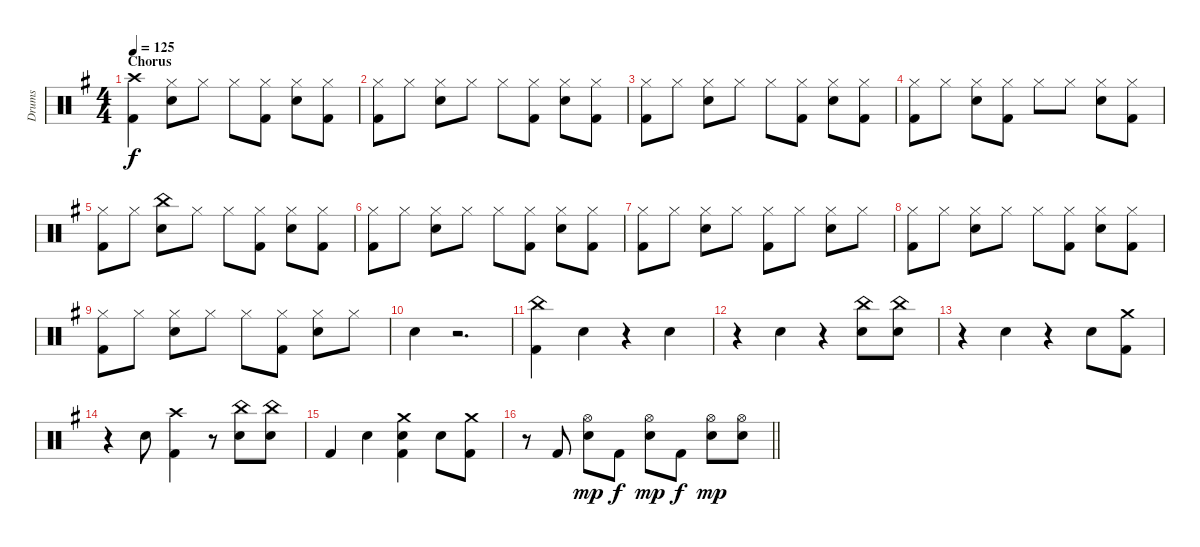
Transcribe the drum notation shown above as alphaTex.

\track ("Drums" "Drums") {instrument percussion}
\staff {score}
\articulation defaults
\ts (4 4)
\section ("" "Chorus")
\tempo 125
\clef neutral
\ks eminor
("Crash high (hit)" "Kick (hit) 2").4{dy f} ("Hi-Hat (closed)" "Electric Snare (hit)").8 "Hi-Hat (closed)".8 "Hi-Hat (closed)".8 ("Hi-Hat (closed)" "Kick (hit) 2").8 ("Hi-Hat (closed)" "Electric Snare (hit)").8 ("Hi-Hat (closed)" "Kick (hit) 2").8 |
("Hi-Hat (closed)" "Kick (hit) 2").8 "Hi-Hat (closed)".8 ("Hi-Hat (closed)" "Electric Snare (hit)").8 "Hi-Hat (closed)".8 "Hi-Hat (closed)".8 ("Hi-Hat (closed)" "Kick (hit) 2").8 ("Hi-Hat (closed)" "Electric Snare (hit)").8 ("Hi-Hat (closed)" "Kick (hit) 2").8 |
("Hi-Hat (closed)" "Kick (hit) 2").8 "Hi-Hat (closed)".8 ("Hi-Hat (closed)" "Electric Snare (hit)").8 "Hi-Hat (closed)".8 "Hi-Hat (closed)".8 ("Hi-Hat (closed)" "Kick (hit) 2").8 ("Hi-Hat (closed)" "Electric Snare (hit)").8 ("Hi-Hat (closed)" "Kick (hit) 2").8 |
("Hi-Hat (closed)" "Kick (hit) 2").8 "Hi-Hat (closed)".8 ("Hi-Hat (closed)" "Electric Snare (hit)").8 ("Hi-Hat (closed)" "Kick (hit) 2").8 "Hi-Hat (closed)".8 "Hi-Hat (closed)".8 ("Hi-Hat (closed)" "Electric Snare (hit)").8 ("Hi-Hat (closed)" "Kick (hit) 2").8 |
("Hi-Hat (closed)" "Kick (hit) 2").8 "Hi-Hat (closed)".8 ("China (hit)" "Electric Snare (hit)").8 "Hi-Hat (closed)".8 "Hi-Hat (closed)".8 ("Hi-Hat (closed)" "Kick (hit) 2").8 ("Hi-Hat (closed)" "Electric Snare (hit)").8 ("Hi-Hat (closed)" "Kick (hit) 2").8 |
("Hi-Hat (closed)" "Kick (hit) 2").8 "Hi-Hat (closed)".8 ("Hi-Hat (closed)" "Electric Snare (hit)").8 "Hi-Hat (closed)".8 "Hi-Hat (closed)".8 ("Hi-Hat (closed)" "Kick (hit) 2").8 ("Hi-Hat (closed)" "Electric Snare (hit)").8 ("Hi-Hat (closed)" "Kick (hit) 2").8 |
("Hi-Hat (closed)" "Kick (hit) 2").8 "Hi-Hat (closed)".8 ("Hi-Hat (closed)" "Electric Snare (hit)").8 "Hi-Hat (closed)".8 ("Hi-Hat (closed)" "Kick (hit) 2").8 "Hi-Hat (closed)".8 ("Hi-Hat (closed)" "Electric Snare (hit)").8 "Hi-Hat (closed)".8 |
("Hi-Hat (closed)" "Kick (hit) 2").8 "Hi-Hat (closed)".8 ("Hi-Hat (closed)" "Electric Snare (hit)").8 "Hi-Hat (closed)".8 "Hi-Hat (closed)".8 ("Hi-Hat (closed)" "Kick (hit) 2").8 ("Hi-Hat (closed)" "Electric Snare (hit)").8 ("Hi-Hat (closed)" "Kick (hit) 2").8 |
("Hi-Hat (closed)" "Kick (hit) 2").8 "Hi-Hat (closed)".8 ("Hi-Hat (closed)" "Electric Snare (hit)").8 "Hi-Hat (closed)".8 "Hi-Hat (closed)".8 ("Hi-Hat (closed)" "Kick (hit) 2").8 ("Hi-Hat (closed)" "Electric Snare (hit)").8 "Hi-Hat (closed)".8 |
"Electric Snare (hit)".4 r.2{d} |
("China (hit)" "Kick (hit) 2").4 "Electric Snare (hit)".4 r.4 "Electric Snare (hit)".4 |
r.4 "Electric Snare (hit)".4 r.4 ("China (hit)" "Electric Snare (hit)").8 ("China (hit)" "Electric Snare (hit)").8 |
r.4 "Electric Snare (hit)".4 r.4 "Electric Snare (hit)".8 ("Crash medium (hit)" "Kick (hit) 2").8 |
r.4 "Electric Snare (hit)".8 ("Crash high (hit)" "Kick (hit) 2").4 r.8 ("China (hit)" "Electric Snare (hit)").8 ("China (hit)" "Electric Snare (hit)").8 |
"Kick (hit) 2".4 "Electric Snare (hit)".4 ("Crash medium (hit)" "Electric Snare (hit)" "Kick (hit) 2").4 "Electric Snare (hit)".8 ("Crash medium (hit)" "Kick (hit) 2").8 |
\barLineRight lightlight
r.8 "Kick (hit) 2".8 ("Hi-Hat (open)" "Electric Snare (hit)").8{dy mp} "Kick (hit) 2".8{dy f} ("Hi-Hat (open)" "Electric Snare (hit)").8{dy mp} "Kick (hit) 2".8{dy f} ("Hi-Hat (open)" "Electric Snare (hit)").8{dy mp} ("Hi-Hat (open)" "Electric Snare (hit)").8
